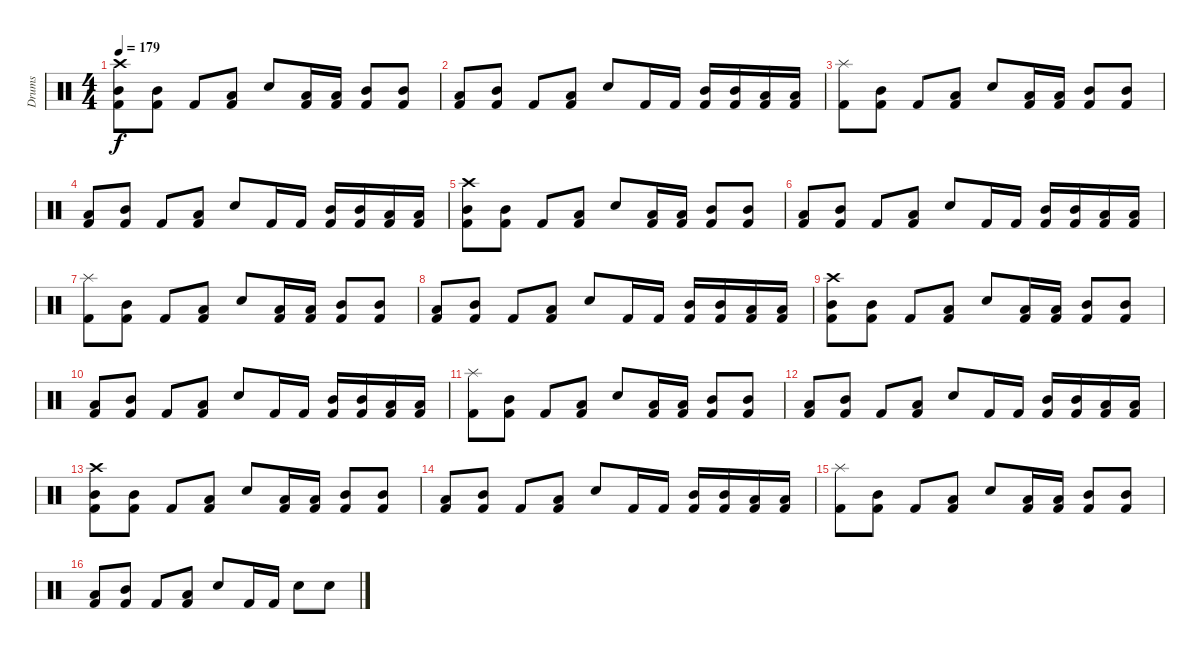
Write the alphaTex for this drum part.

\track ("Drums" "Drums") {instrument percussion}
\staff {score}
\articulation defaults
\ts (4 4)
\tempo 179
\clef neutral
\ks c
("Crash high (hit)" "Mid Tom (hit)" "Kick (hit) 2").8{dy f} ("Mid Tom (hit)" "Kick (hit) 2").8 "Kick (hit) 2".8 ("Low Tom (hit)" "Kick (hit) 2").8 "Snare (hit) 2".8 ("Low Tom (hit)" "Kick (hit) 2").16 ("Low Tom (hit)" "Kick (hit) 2").16 ("Mid Tom (hit)" "Kick (hit) 2").8 ("Mid Tom (hit)" "Kick (hit) 2").8 |
("Low Tom (hit)" "Kick (hit) 2").8 ("Mid Tom (hit)" "Kick (hit) 2").8 "Kick (hit) 2".8 ("Low Tom (hit)" "Kick (hit) 2").8 "Snare (hit) 2".8 "Kick (hit) 2".16 "Kick (hit) 2".16 ("Mid Tom (hit)" "Kick (hit) 2").16 ("Mid Tom (hit)" "Kick (hit) 2").16 ("Low Tom (hit)" "Kick (hit) 2").16 ("Low Tom (hit)" "Kick (hit) 2").16 |
("Splash (hit)" "Kick (hit) 2").8 ("Mid Tom (hit)" "Kick (hit) 2").8 "Kick (hit) 2".8 ("Low Tom (hit)" "Kick (hit) 2").8 "Snare (hit) 2".8 ("Low Tom (hit)" "Kick (hit) 2").16 ("Low Tom (hit)" "Kick (hit) 2").16 ("Mid Tom (hit)" "Kick (hit) 2").8 ("Mid Tom (hit)" "Kick (hit) 2").8 |
("Low Tom (hit)" "Kick (hit) 2").8 ("Mid Tom (hit)" "Kick (hit) 2").8 "Kick (hit) 2".8 ("Low Tom (hit)" "Kick (hit) 2").8 "Snare (hit) 2".8 "Kick (hit) 2".16 "Kick (hit) 2".16 ("Mid Tom (hit)" "Kick (hit) 2").16 ("Mid Tom (hit)" "Kick (hit) 2").16 ("Low Tom (hit)" "Kick (hit) 2").16 ("Low Tom (hit)" "Kick (hit) 2").16 |
("Crash high (hit)" "Mid Tom (hit)" "Kick (hit) 2").8 ("Mid Tom (hit)" "Kick (hit) 2").8 "Kick (hit) 2".8 ("Low Tom (hit)" "Kick (hit) 2").8 "Snare (hit) 2".8 ("Low Tom (hit)" "Kick (hit) 2").16 ("Low Tom (hit)" "Kick (hit) 2").16 ("Mid Tom (hit)" "Kick (hit) 2").8 ("Mid Tom (hit)" "Kick (hit) 2").8 |
("Low Tom (hit)" "Kick (hit) 2").8 ("Mid Tom (hit)" "Kick (hit) 2").8 "Kick (hit) 2".8 ("Low Tom (hit)" "Kick (hit) 2").8 "Snare (hit) 2".8 "Kick (hit) 2".16 "Kick (hit) 2".16 ("Mid Tom (hit)" "Kick (hit) 2").16 ("Mid Tom (hit)" "Kick (hit) 2").16 ("Low Tom (hit)" "Kick (hit) 2").16 ("Low Tom (hit)" "Kick (hit) 2").16 |
("Splash (hit)" "Kick (hit) 2").8 ("Mid Tom (hit)" "Kick (hit) 2").8 "Kick (hit) 2".8 ("Low Tom (hit)" "Kick (hit) 2").8 "Snare (hit) 2".8 ("Low Tom (hit)" "Kick (hit) 2").16 ("Low Tom (hit)" "Kick (hit) 2").16 ("Mid Tom (hit)" "Kick (hit) 2").8 ("Mid Tom (hit)" "Kick (hit) 2").8 |
("Low Tom (hit)" "Kick (hit) 2").8 ("Mid Tom (hit)" "Kick (hit) 2").8 "Kick (hit) 2".8 ("Low Tom (hit)" "Kick (hit) 2").8 "Snare (hit) 2".8 "Kick (hit) 2".16 "Kick (hit) 2".16 ("Mid Tom (hit)" "Kick (hit) 2").16 ("Mid Tom (hit)" "Kick (hit) 2").16 ("Low Tom (hit)" "Kick (hit) 2").16 ("Low Tom (hit)" "Kick (hit) 2").16 |
("Crash high (hit)" "Mid Tom (hit)" "Kick (hit) 2").8 ("Mid Tom (hit)" "Kick (hit) 2").8 "Kick (hit) 2".8 ("Low Tom (hit)" "Kick (hit) 2").8 "Snare (hit) 2".8 ("Low Tom (hit)" "Kick (hit) 2").16 ("Low Tom (hit)" "Kick (hit) 2").16 ("Mid Tom (hit)" "Kick (hit) 2").8 ("Mid Tom (hit)" "Kick (hit) 2").8 |
("Low Tom (hit)" "Kick (hit) 2").8 ("Mid Tom (hit)" "Kick (hit) 2").8 "Kick (hit) 2".8 ("Low Tom (hit)" "Kick (hit) 2").8 "Snare (hit) 2".8 "Kick (hit) 2".16 "Kick (hit) 2".16 ("Mid Tom (hit)" "Kick (hit) 2").16 ("Mid Tom (hit)" "Kick (hit) 2").16 ("Low Tom (hit)" "Kick (hit) 2").16 ("Low Tom (hit)" "Kick (hit) 2").16 |
("Splash (hit)" "Kick (hit) 2").8 ("Mid Tom (hit)" "Kick (hit) 2").8 "Kick (hit) 2".8 ("Low Tom (hit)" "Kick (hit) 2").8 "Snare (hit) 2".8 ("Low Tom (hit)" "Kick (hit) 2").16 ("Low Tom (hit)" "Kick (hit) 2").16 ("Mid Tom (hit)" "Kick (hit) 2").8 ("Mid Tom (hit)" "Kick (hit) 2").8 |
("Low Tom (hit)" "Kick (hit) 2").8 ("Mid Tom (hit)" "Kick (hit) 2").8 "Kick (hit) 2".8 ("Low Tom (hit)" "Kick (hit) 2").8 "Snare (hit) 2".8 "Kick (hit) 2".16 "Kick (hit) 2".16 ("Mid Tom (hit)" "Kick (hit) 2").16 ("Mid Tom (hit)" "Kick (hit) 2").16 ("Low Tom (hit)" "Kick (hit) 2").16 ("Low Tom (hit)" "Kick (hit) 2").16 |
("Crash high (hit)" "Mid Tom (hit)" "Kick (hit) 2").8 ("Mid Tom (hit)" "Kick (hit) 2").8 "Kick (hit) 2".8 ("Low Tom (hit)" "Kick (hit) 2").8 "Snare (hit) 2".8 ("Low Tom (hit)" "Kick (hit) 2").16 ("Low Tom (hit)" "Kick (hit) 2").16 ("Mid Tom (hit)" "Kick (hit) 2").8 ("Mid Tom (hit)" "Kick (hit) 2").8 |
("Low Tom (hit)" "Kick (hit) 2").8 ("Mid Tom (hit)" "Kick (hit) 2").8 "Kick (hit) 2".8 ("Low Tom (hit)" "Kick (hit) 2").8 "Snare (hit) 2".8 "Kick (hit) 2".16 "Kick (hit) 2".16 ("Mid Tom (hit)" "Kick (hit) 2").16 ("Mid Tom (hit)" "Kick (hit) 2").16 ("Low Tom (hit)" "Kick (hit) 2").16 ("Low Tom (hit)" "Kick (hit) 2").16 |
("Splash (hit)" "Kick (hit) 2").8 ("Mid Tom (hit)" "Kick (hit) 2").8 "Kick (hit) 2".8 ("Low Tom (hit)" "Kick (hit) 2").8 "Snare (hit) 2".8 ("Low Tom (hit)" "Kick (hit) 2").16 ("Low Tom (hit)" "Kick (hit) 2").16 ("Mid Tom (hit)" "Kick (hit) 2").8 ("Mid Tom (hit)" "Kick (hit) 2").8 |
("Low Tom (hit)" "Kick (hit) 2").8 ("Mid Tom (hit)" "Kick (hit) 2").8 "Kick (hit) 2".8 ("Low Tom (hit)" "Kick (hit) 2").8 "Snare (hit) 2".8 "Kick (hit) 2".16 "Kick (hit) 2".16 "Snare (hit) 2".8 "Snare (hit) 2".8
